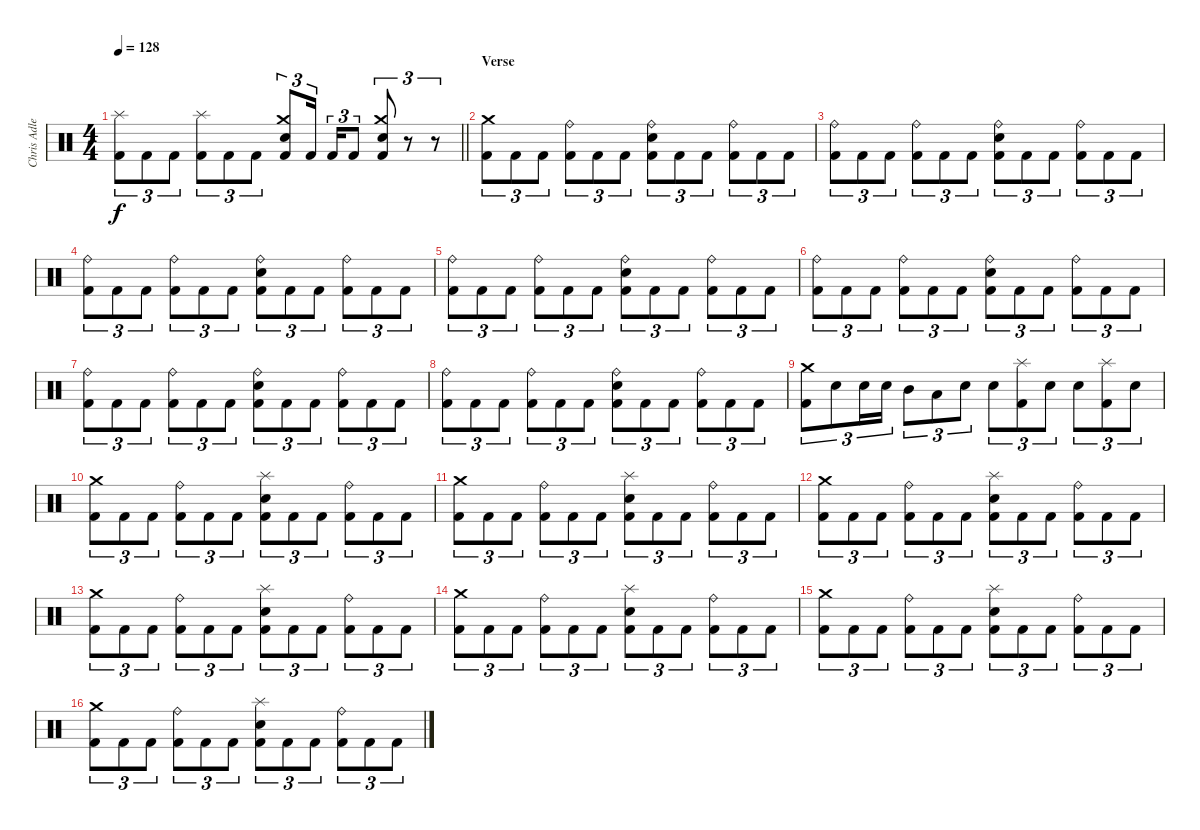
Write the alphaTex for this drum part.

\track ("Chris Adler" "Chris Adle") {instrument percussion}
\staff {score}
\articulation defaults
\ts (4 4)
\tempo 128
\clef neutral
\barLineRight lightlight
\ks c
("Splash (hit)" "Kick (hit) 2").8{tu (3 2) dy f} "Kick (hit) 2".8{tu (3 2)} "Kick (hit) 2".8{tu (3 2)} ("Splash (hit)" "Kick (hit) 2").8{tu (3 2)} "Kick (hit) 2".8{tu (3 2)} "Kick (hit) 2".8{tu (3 2)} ("Crash medium (hit)" "Electric Snare (hit)" "Kick (hit) 2").8{tu (3 2)} "Kick (hit) 2".16{tu (3 2) beam splitsecondary} "Kick (hit) 2".16{tu (3 2)} "Kick (hit) 2".8{tu (3 2)} ("Crash medium (hit)" "Electric Snare (hit)" "Kick (hit) 2").8{tu (3 2)} r.8{tu (3 2)} r.8{tu (3 2)} |
\section ("" "Verse")
("Crash medium (hit)" "Kick (hit) 2").8{tu (3 2)} "Kick (hit) 2".8{tu (3 2)} "Kick (hit) 2".8{tu (3 2)} ("Ride (bell)" "Kick (hit) 2").8{tu (3 2)} "Kick (hit) 2".8{tu (3 2)} "Kick (hit) 2".8{tu (3 2)} ("Ride (bell)" "Electric Snare (hit)" "Kick (hit) 2").8{tu (3 2)} "Kick (hit) 2".8{tu (3 2)} "Kick (hit) 2".8{tu (3 2)} ("Ride (bell)" "Kick (hit) 2").8{tu (3 2)} "Kick (hit) 2".8{tu (3 2)} "Kick (hit) 2".8{tu (3 2)} |
("Ride (bell)" "Kick (hit) 2").8{tu (3 2)} "Kick (hit) 2".8{tu (3 2)} "Kick (hit) 2".8{tu (3 2)} ("Ride (bell)" "Kick (hit) 2").8{tu (3 2)} "Kick (hit) 2".8{tu (3 2)} "Kick (hit) 2".8{tu (3 2)} ("Ride (bell)" "Electric Snare (hit)" "Kick (hit) 2").8{tu (3 2)} "Kick (hit) 2".8{tu (3 2)} "Kick (hit) 2".8{tu (3 2)} ("Ride (bell)" "Kick (hit) 2").8{tu (3 2)} "Kick (hit) 2".8{tu (3 2)} "Kick (hit) 2".8{tu (3 2)} |
("Ride (bell)" "Kick (hit) 2").8{tu (3 2)} "Kick (hit) 2".8{tu (3 2)} "Kick (hit) 2".8{tu (3 2)} ("Ride (bell)" "Kick (hit) 2").8{tu (3 2)} "Kick (hit) 2".8{tu (3 2)} "Kick (hit) 2".8{tu (3 2)} ("Ride (bell)" "Electric Snare (hit)" "Kick (hit) 2").8{tu (3 2)} "Kick (hit) 2".8{tu (3 2)} "Kick (hit) 2".8{tu (3 2)} ("Ride (bell)" "Kick (hit) 2").8{tu (3 2)} "Kick (hit) 2".8{tu (3 2)} "Kick (hit) 2".8{tu (3 2)} |
("Ride (bell)" "Kick (hit) 2").8{tu (3 2)} "Kick (hit) 2".8{tu (3 2)} "Kick (hit) 2".8{tu (3 2)} ("Ride (bell)" "Kick (hit) 2").8{tu (3 2)} "Kick (hit) 2".8{tu (3 2)} "Kick (hit) 2".8{tu (3 2)} ("Ride (bell)" "Electric Snare (hit)" "Kick (hit) 2").8{tu (3 2)} "Kick (hit) 2".8{tu (3 2)} "Kick (hit) 2".8{tu (3 2)} ("Ride (bell)" "Kick (hit) 2").8{tu (3 2)} "Kick (hit) 2".8{tu (3 2)} "Kick (hit) 2".8{tu (3 2)} |
("Ride (bell)" "Kick (hit) 2").8{tu (3 2)} "Kick (hit) 2".8{tu (3 2)} "Kick (hit) 2".8{tu (3 2)} ("Ride (bell)" "Kick (hit) 2").8{tu (3 2)} "Kick (hit) 2".8{tu (3 2)} "Kick (hit) 2".8{tu (3 2)} ("Ride (bell)" "Electric Snare (hit)" "Kick (hit) 2").8{tu (3 2)} "Kick (hit) 2".8{tu (3 2)} "Kick (hit) 2".8{tu (3 2)} ("Ride (bell)" "Kick (hit) 2").8{tu (3 2)} "Kick (hit) 2".8{tu (3 2)} "Kick (hit) 2".8{tu (3 2)} |
("Ride (bell)" "Kick (hit) 2").8{tu (3 2)} "Kick (hit) 2".8{tu (3 2)} "Kick (hit) 2".8{tu (3 2)} ("Ride (bell)" "Kick (hit) 2").8{tu (3 2)} "Kick (hit) 2".8{tu (3 2)} "Kick (hit) 2".8{tu (3 2)} ("Ride (bell)" "Electric Snare (hit)" "Kick (hit) 2").8{tu (3 2)} "Kick (hit) 2".8{tu (3 2)} "Kick (hit) 2".8{tu (3 2)} ("Ride (bell)" "Kick (hit) 2").8{tu (3 2)} "Kick (hit) 2".8{tu (3 2)} "Kick (hit) 2".8{tu (3 2)} |
("Ride (bell)" "Kick (hit) 2").8{tu (3 2)} "Kick (hit) 2".8{tu (3 2)} "Kick (hit) 2".8{tu (3 2)} ("Ride (bell)" "Kick (hit) 2").8{tu (3 2)} "Kick (hit) 2".8{tu (3 2)} "Kick (hit) 2".8{tu (3 2)} ("Ride (bell)" "Electric Snare (hit)" "Kick (hit) 2").8{tu (3 2)} "Kick (hit) 2".8{tu (3 2)} "Kick (hit) 2".8{tu (3 2)} ("Ride (bell)" "Kick (hit) 2").8{tu (3 2)} "Kick (hit) 2".8{tu (3 2)} "Kick (hit) 2".8{tu (3 2)} |
("Crash medium (hit)" "Kick (hit) 2").8{tu (3 2)} "Electric Snare (hit)".8{tu (3 2)} "Electric Snare (hit)".16{tu (3 2)} "Electric Snare (hit)".16{tu (3 2)} "Mid Tom (hit)".8{tu (3 2)} "Low Tom (hit)".8{tu (3 2)} "Electric Snare (hit)".8{tu (3 2)} "Electric Snare (hit)".8{tu (3 2)} ("Splash (hit)" "Kick (hit) 2").8{tu (3 2)} "Electric Snare (hit)".8{tu (3 2)} "Electric Snare (hit)".8{tu (3 2)} ("Splash (hit)" "Kick (hit) 2").8{tu (3 2)} "Electric Snare (hit)".8{tu (3 2)} |
("Crash medium (hit)" "Kick (hit) 2").8{tu (3 2)} "Kick (hit) 2".8{tu (3 2)} "Kick (hit) 2".8{tu (3 2)} ("Ride (bell)" "Kick (hit) 2").8{tu (3 2)} "Kick (hit) 2".8{tu (3 2)} "Kick (hit) 2".8{tu (3 2)} ("Splash (hit)" "Electric Snare (hit)" "Kick (hit) 2").8{tu (3 2)} "Kick (hit) 2".8{tu (3 2)} "Kick (hit) 2".8{tu (3 2)} ("Ride (bell)" "Kick (hit) 2").8{tu (3 2)} "Kick (hit) 2".8{tu (3 2)} "Kick (hit) 2".8{tu (3 2)} |
("Crash medium (hit)" "Kick (hit) 2").8{tu (3 2)} "Kick (hit) 2".8{tu (3 2)} "Kick (hit) 2".8{tu (3 2)} ("Ride (bell)" "Kick (hit) 2").8{tu (3 2)} "Kick (hit) 2".8{tu (3 2)} "Kick (hit) 2".8{tu (3 2)} ("Splash (hit)" "Electric Snare (hit)" "Kick (hit) 2").8{tu (3 2)} "Kick (hit) 2".8{tu (3 2)} "Kick (hit) 2".8{tu (3 2)} ("Ride (bell)" "Kick (hit) 2").8{tu (3 2)} "Kick (hit) 2".8{tu (3 2)} "Kick (hit) 2".8{tu (3 2)} |
("Crash medium (hit)" "Kick (hit) 2").8{tu (3 2)} "Kick (hit) 2".8{tu (3 2)} "Kick (hit) 2".8{tu (3 2)} ("Ride (bell)" "Kick (hit) 2").8{tu (3 2)} "Kick (hit) 2".8{tu (3 2)} "Kick (hit) 2".8{tu (3 2)} ("Splash (hit)" "Electric Snare (hit)" "Kick (hit) 2").8{tu (3 2)} "Kick (hit) 2".8{tu (3 2)} "Kick (hit) 2".8{tu (3 2)} ("Ride (bell)" "Kick (hit) 2").8{tu (3 2)} "Kick (hit) 2".8{tu (3 2)} "Kick (hit) 2".8{tu (3 2)} |
("Crash medium (hit)" "Kick (hit) 2").8{tu (3 2)} "Kick (hit) 2".8{tu (3 2)} "Kick (hit) 2".8{tu (3 2)} ("Ride (bell)" "Kick (hit) 2").8{tu (3 2)} "Kick (hit) 2".8{tu (3 2)} "Kick (hit) 2".8{tu (3 2)} ("Splash (hit)" "Electric Snare (hit)" "Kick (hit) 2").8{tu (3 2)} "Kick (hit) 2".8{tu (3 2)} "Kick (hit) 2".8{tu (3 2)} ("Ride (bell)" "Kick (hit) 2").8{tu (3 2)} "Kick (hit) 2".8{tu (3 2)} "Kick (hit) 2".8{tu (3 2)} |
("Crash medium (hit)" "Kick (hit) 2").8{tu (3 2)} "Kick (hit) 2".8{tu (3 2)} "Kick (hit) 2".8{tu (3 2)} ("Ride (bell)" "Kick (hit) 2").8{tu (3 2)} "Kick (hit) 2".8{tu (3 2)} "Kick (hit) 2".8{tu (3 2)} ("Splash (hit)" "Electric Snare (hit)" "Kick (hit) 2").8{tu (3 2)} "Kick (hit) 2".8{tu (3 2)} "Kick (hit) 2".8{tu (3 2)} ("Ride (bell)" "Kick (hit) 2").8{tu (3 2)} "Kick (hit) 2".8{tu (3 2)} "Kick (hit) 2".8{tu (3 2)} |
("Crash medium (hit)" "Kick (hit) 2").8{tu (3 2)} "Kick (hit) 2".8{tu (3 2)} "Kick (hit) 2".8{tu (3 2)} ("Ride (bell)" "Kick (hit) 2").8{tu (3 2)} "Kick (hit) 2".8{tu (3 2)} "Kick (hit) 2".8{tu (3 2)} ("Splash (hit)" "Electric Snare (hit)" "Kick (hit) 2").8{tu (3 2)} "Kick (hit) 2".8{tu (3 2)} "Kick (hit) 2".8{tu (3 2)} ("Ride (bell)" "Kick (hit) 2").8{tu (3 2)} "Kick (hit) 2".8{tu (3 2)} "Kick (hit) 2".8{tu (3 2)} |
("Crash medium (hit)" "Kick (hit) 2").8{tu (3 2)} "Kick (hit) 2".8{tu (3 2)} "Kick (hit) 2".8{tu (3 2)} ("Ride (bell)" "Kick (hit) 2").8{tu (3 2)} "Kick (hit) 2".8{tu (3 2)} "Kick (hit) 2".8{tu (3 2)} ("Splash (hit)" "Electric Snare (hit)" "Kick (hit) 2").8{tu (3 2)} "Kick (hit) 2".8{tu (3 2)} "Kick (hit) 2".8{tu (3 2)} ("Ride (bell)" "Kick (hit) 2").8{tu (3 2)} "Kick (hit) 2".8{tu (3 2)} "Kick (hit) 2".8{tu (3 2)}
